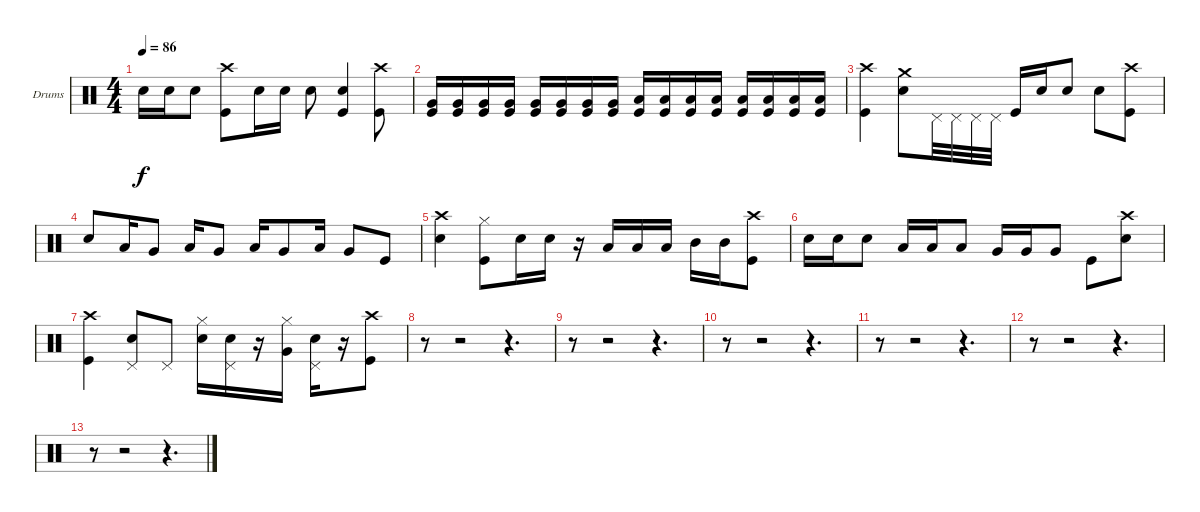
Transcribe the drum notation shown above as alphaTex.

\bracketExtendMode groupsimilarinstruments
\firstSystemTrackNameOrientation horizontal
\otherSystemsTrackNameOrientation horizontal
\track ("Drumkit" "Drums") {instrument percussion}
\staff {score}
\articulation defaults
\ts (4 4)
\tempo 86
\clef neutral
\ks c "Snare (hit) 2".16{dy f} "Snare (hit) 2".16 "Snare (hit) 2".8
("Crash high (hit)" "Kick (hit)").8 "Snare (hit) 2".16 "Snare (hit) 2".16 "Snare (hit) 2".8 ("Snare (hit) 2" "Kick (hit)").4 ("Crash high (hit)" "Kick (hit)").8 |
("Kick (hit)" "Very Low Tom (hit)").16 ("Kick (hit)" "Very Low Tom (hit)").16 ("Kick (hit)" "Very Low Tom (hit)").16 ("Kick (hit)" "Very Low Tom (hit)").16 ("Kick (hit)" "Very Low Tom (hit)").16 ("Kick (hit)" "Very Low Tom (hit)").16 ("Kick (hit)" "Very Low Tom (hit)").16 ("Kick (hit)" "Very Low Tom (hit)").16 ("Kick (hit)" "Low Tom (hit)").16 ("Kick (hit)" "Low Tom (hit)").16 ("Kick (hit)" "Low Tom (hit)").16 ("Kick (hit)" "Low Tom (hit)").16 ("Kick (hit)" "Low Tom (hit)").16 ("Kick (hit)" "Low Tom (hit)").16 ("Kick (hit)" "Low Tom (hit)").16 ("Kick (hit)" "Low Tom (hit)").16 |
("Crash high (hit)" "Kick (hit)").4 ("Crash medium (hit)" "Snare (hit) 2").8 "Pedal Hi-Hat (hit)".32 "Pedal Hi-Hat (hit)".32 "Pedal Hi-Hat (hit)".32 "Pedal Hi-Hat (hit)".32 "Kick (hit)".16 "Snare (hit) 2".16 "Snare (hit) 2".8 "Snare (hit) 2".8 ("Crash high (hit)" "Kick (hit)").8 |
"Snare (hit) 2".8 "Low Tom (hit)".16 "Very Low Tom (hit)".8 "Low Tom (hit)".16 "Very Low Tom (hit)".8 "Low Tom (hit)".16 "Very Low Tom (hit)".8 "Low Tom (hit)".16 "Very Low Tom (hit)".8 "Kick (hit)".8 |
("Crash high (hit)" "Snare (hit) 2").4 ("Hi-Hat (closed)" "Kick (hit)").8 "Snare (hit) 2".16 "Snare (hit) 2".16 r.16 "Low Tom (hit)".16 "Low Tom (hit)".16 "Low Tom (hit)".16 "Mid Tom (hit)".16 "Mid Tom (hit)".16 ("Crash high (hit)" "Kick (hit)").8 |
"Snare (hit) 2".16 "Snare (hit) 2".16 "Snare (hit) 2".8 "Low Tom (hit)".16 "Low Tom (hit)".16 "Low Tom (hit)".8 "Very Low Tom (hit)".16 "Very Low Tom (hit)".16 "Very Low Tom (hit)".8 "Kick (hit)".8 ("Crash high (hit)" "Snare (hit) 2").8 |
("Crash high (hit)" "Kick (hit)").4 ("Pedal Hi-Hat (hit)" "Snare (hit) 2").8 "Pedal Hi-Hat (hit)".8 ("Hi-Hat (closed)" "Snare (hit) 2").16 ("Pedal Hi-Hat (hit)" "Snare (hit) 2").16 r.16 ("Hi-Hat (closed)" "Very Low Tom (hit)").16 ("Pedal Hi-Hat (hit)" "Snare (hit) 2").16 r.16 ("Crash high (hit)" "Kick (hit)").8 |
r.8 r.2 r.4{d} |
r.8 r.2 r.4{d} |
r.8 r.2 r.4{d} |
r.8 r.2 r.4{d} |
r.8 r.2 r.4{d} |
r.8 r.2 r.4{d}
